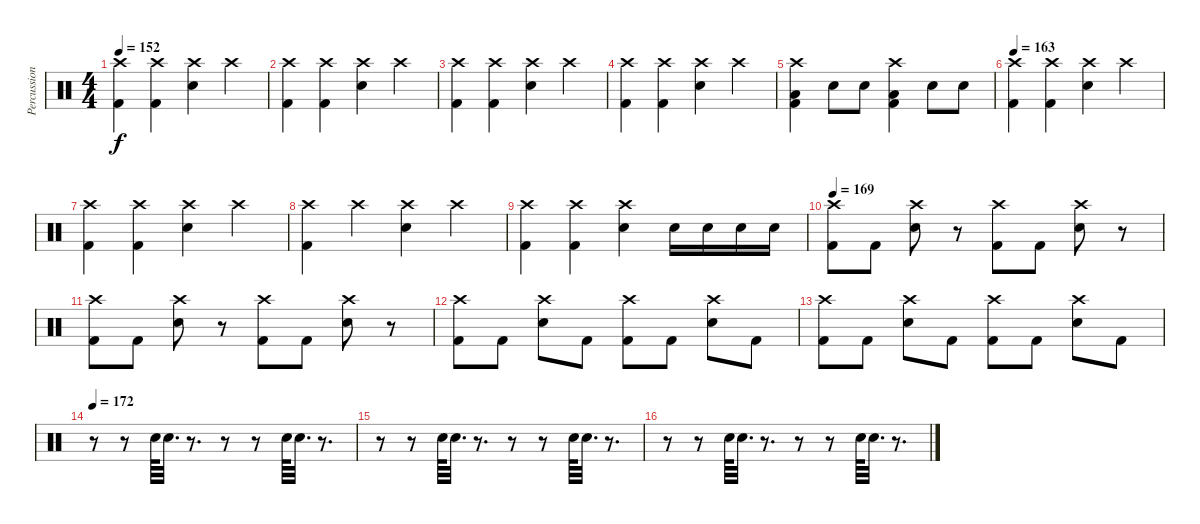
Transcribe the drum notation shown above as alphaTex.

\track ("Percussion" "Percussion") {instrument percussion}
\staff {score}
\articulation defaults
\ts (4 4)
\tempo 152
\clef neutral
\ks c
("Crash high (hit)" "Kick (hit) 2").4{dy f} ("Crash high (hit)" "Kick (hit) 2").4 ("Crash high (hit)" "Snare (hit) 2").4 "Crash high (hit)".4 |
("Crash high (hit)" "Kick (hit) 2").4 ("Crash high (hit)" "Kick (hit) 2").4 ("Crash high (hit)" "Snare (hit) 2").4 "Crash high (hit)".4 |
("Crash high (hit)" "Kick (hit) 2").4 ("Crash high (hit)" "Kick (hit) 2").4 ("Crash high (hit)" "Snare (hit) 2").4 "Crash high (hit)".4 |
("Crash high (hit)" "Kick (hit) 2").4 ("Crash high (hit)" "Kick (hit) 2").4 ("Crash high (hit)" "Snare (hit) 2").4 "Crash high (hit)".4 |
("Crash high (hit)" "Low Tom (hit)" "Kick (hit) 2").4 "Snare (hit) 2".8 "Snare (hit) 2".8 ("Crash high (hit)" "Low Floor Tom (hit)" "Kick (hit) 2").4 "Snare (hit) 2".8 "Snare (hit) 2".8 |
\tempo 163
("Crash high (hit)" "Kick (hit) 2").4 ("Crash high (hit)" "Kick (hit) 2").4 ("Crash high (hit)" "Snare (hit) 2").4 "Crash high (hit)".4 |
("Crash high (hit)" "Kick (hit) 2").4 ("Crash high (hit)" "Kick (hit) 2").4 ("Crash high (hit)" "Snare (hit) 2").4 "Crash high (hit)".4 |
("Crash high (hit)" "Kick (hit) 2").4 "Crash high (hit)".4 ("Crash high (hit)" "Snare (hit) 2").4 "Crash high (hit)".4 |
("Crash high (hit)" "Kick (hit) 2").4 ("Crash high (hit)" "Kick (hit) 2").4 ("Crash high (hit)" "Snare (hit) 2").4 "Snare (hit) 2".16 "Snare (hit) 2".16 "Snare (hit) 2".16 "Snare (hit) 2".16 |
\tempo 169
("Crash high (hit)" "Kick (hit) 2").8 "Kick (hit) 2".8 ("Crash high (hit)" "Snare (hit) 2").8 r.8 ("Crash high (hit)" "Kick (hit) 2").8 "Kick (hit) 2".8 ("Crash high (hit)" "Snare (hit) 2").8 r.8 |
("Crash high (hit)" "Kick (hit) 2").8 "Kick (hit) 2".8 ("Crash high (hit)" "Snare (hit) 2").8 r.8 ("Crash high (hit)" "Kick (hit) 2").8 "Kick (hit) 2".8 ("Crash high (hit)" "Snare (hit) 2").8 r.8 |
("Crash high (hit)" "Kick (hit) 2").8 "Kick (hit) 2".8 ("Crash high (hit)" "Snare (hit) 2").8 "Kick (hit) 2".8 ("Crash high (hit)" "Kick (hit) 2").8 "Kick (hit) 2".8 ("Crash high (hit)" "Snare (hit) 2").8 "Kick (hit) 2".8 |
("Crash high (hit)" "Kick (hit) 2").8 "Kick (hit) 2".8 ("Crash high (hit)" "Snare (hit) 2").8 "Kick (hit) 2".8 ("Crash high (hit)" "Kick (hit) 2").8 "Kick (hit) 2".8 ("Crash high (hit)" "Snare (hit) 2").8 "Kick (hit) 2".8 |
\tempo 172
r.8 r.8 "Snare (hit) 2".64 "Snare (hit) 2".32{d} r.8{d} r.8 r.8 "Snare (hit) 2".64 "Snare (hit) 2".32{d} r.8{d} |
r.8 r.8 "Snare (hit) 2".64 "Snare (hit) 2".32{d} r.8{d} r.8 r.8 "Snare (hit) 2".64 "Snare (hit) 2".32{d} r.8{d} |
r.8 r.8 "Snare (hit) 2".64 "Snare (hit) 2".32{d} r.8{d} r.8 r.8 "Snare (hit) 2".64 "Snare (hit) 2".32{d} r.8{d}
